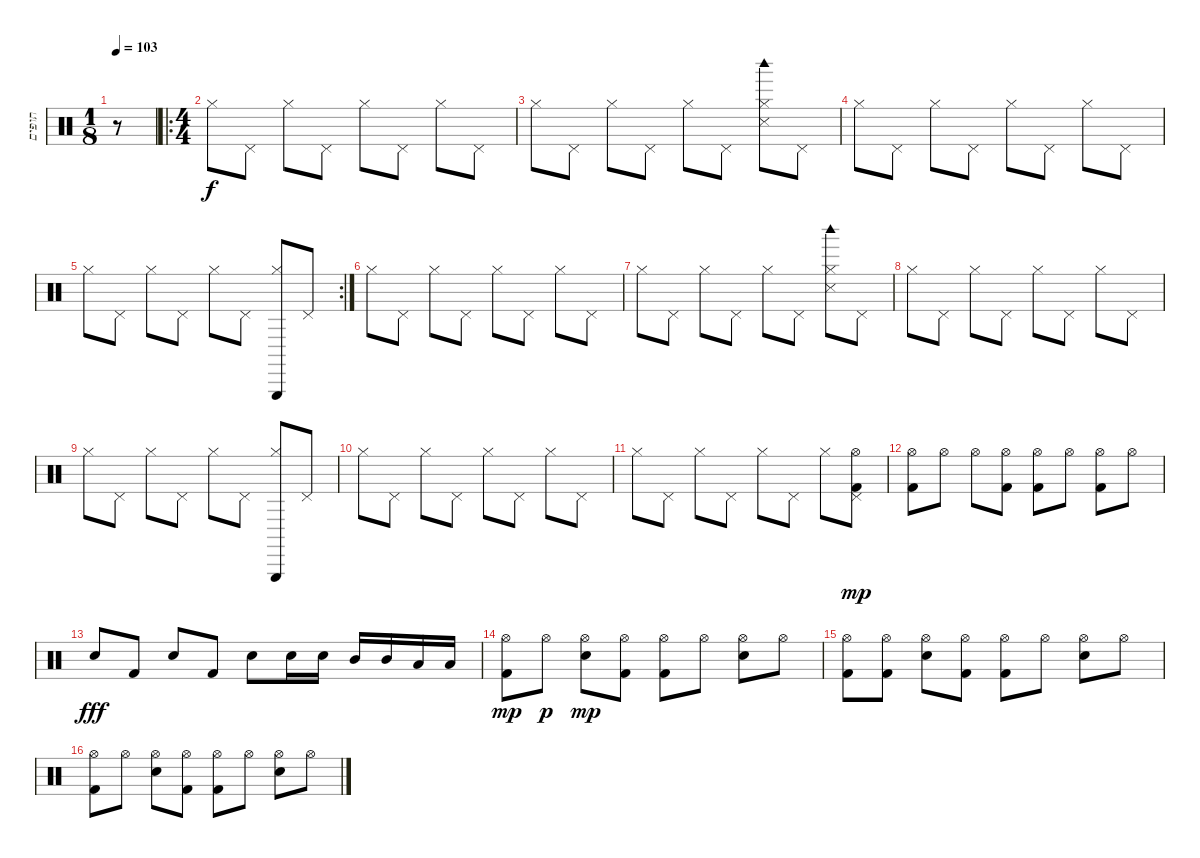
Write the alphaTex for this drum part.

\track ("תופים" "תופים") {instrument percussion}
\staff {score}
\articulation defaults
\ts (1 8)
\tempo 103
\clef neutral
\ks c
r.8{dy f} |
\ro
\ts (4 4)
"Hi-Hat (closed)".8 "Pedal Hi-Hat (hit)".8 "Hi-Hat (closed)".8 "Pedal Hi-Hat (hit)".8 "Hi-Hat (closed)".8 "Pedal Hi-Hat (hit)".8 "Hi-Hat (closed)".8 "Pedal Hi-Hat (hit)".8 |
"Hi-Hat (closed)".8 "Pedal Hi-Hat (hit)".8 "Hi-Hat (closed)".8 "Pedal Hi-Hat (hit)".8 "Hi-Hat (closed)".8 "Pedal Hi-Hat (hit)".8 ("Hi-Hat (closed)" "Woodblock high (hit)" "Snare (side stick) 3").8 "Pedal Hi-Hat (hit)".8 |
"Hi-Hat (closed)".8 "Pedal Hi-Hat (hit)".8 "Hi-Hat (closed)".8 "Pedal Hi-Hat (hit)".8 "Hi-Hat (closed)".8 "Pedal Hi-Hat (hit)".8 "Hi-Hat (closed)".8 "Pedal Hi-Hat (hit)".8 |
\rc 2 "Hi-Hat (closed)".8 "Pedal Hi-Hat (hit)".8 "Hi-Hat (closed)".8 "Pedal Hi-Hat (hit)".8 "Hi-Hat (closed)".8 "Pedal Hi-Hat (hit)".8
("Hi-Hat (closed)" "Triangle (hit)").8 "Pedal Hi-Hat (hit)".8 |
"Hi-Hat (closed)".8 "Pedal Hi-Hat (hit)".8 "Hi-Hat (closed)".8 "Pedal Hi-Hat (hit)".8 "Hi-Hat (closed)".8 "Pedal Hi-Hat (hit)".8 "Hi-Hat (closed)".8 "Pedal Hi-Hat (hit)".8 |
"Hi-Hat (closed)".8 "Pedal Hi-Hat (hit)".8 "Hi-Hat (closed)".8 "Pedal Hi-Hat (hit)".8 "Hi-Hat (closed)".8 "Pedal Hi-Hat (hit)".8 ("Hi-Hat (closed)" "Woodblock high (hit)" "Snare (side stick) 3").8 "Pedal Hi-Hat (hit)".8 |
"Hi-Hat (closed)".8 "Pedal Hi-Hat (hit)".8 "Hi-Hat (closed)".8 "Pedal Hi-Hat (hit)".8 "Hi-Hat (closed)".8 "Pedal Hi-Hat (hit)".8 "Hi-Hat (closed)".8 "Pedal Hi-Hat (hit)".8 |
"Hi-Hat (closed)".8 "Pedal Hi-Hat (hit)".8 "Hi-Hat (closed)".8 "Pedal Hi-Hat (hit)".8 "Hi-Hat (closed)".8 "Pedal Hi-Hat (hit)".8 ("Hi-Hat (closed)" "Triangle (hit)").8 "Pedal Hi-Hat (hit)".8 |
"Hi-Hat (closed)".8 "Pedal Hi-Hat (hit)".8 "Hi-Hat (closed)".8 "Pedal Hi-Hat (hit)".8 "Hi-Hat (closed)".8 "Pedal Hi-Hat (hit)".8 "Hi-Hat (closed)".8 "Pedal Hi-Hat (hit)".8 |
"Hi-Hat (closed)".8 "Pedal Hi-Hat (hit)".8 "Hi-Hat (closed)".8 "Pedal Hi-Hat (hit)".8 "Hi-Hat (closed)".8 "Pedal Hi-Hat (hit)".8 "Hi-Hat (closed)".8 ("Pedal Hi-Hat (hit)" "Kick (hit) 2" "Hi-Hat (open)").8{dy mp} |
("Kick (hit) 2" "Hi-Hat (open)").8 "Hi-Hat (open)".8 "Hi-Hat (open)".8 ("Kick (hit) 2" "Hi-Hat (open)").8 ("Kick (hit) 2" "Hi-Hat (open)").8 "Hi-Hat (open)".8 ("Kick (hit) 2" "Hi-Hat (open)").8 "Hi-Hat (open)".8 |
"Electric Snare (hit)".8{dy fff} "Kick (hit) 2".8 "Electric Snare (hit)".8 "Kick (hit) 2".8 "Electric Snare (hit)".8 "Electric Snare (hit)".16 "Electric Snare (hit)".16 "Mid Tom (hit)".16 "Mid Tom (hit)".16 "Low Tom (hit)".16 "Low Tom (hit)".16 |
("Kick (hit) 2" "Hi-Hat (open)").8{dy mp} "Hi-Hat (open)".8{dy p} ("Electric Snare (hit)" "Hi-Hat (open)").8{dy mp} ("Kick (hit) 2" "Hi-Hat (open)").8 ("Kick (hit) 2" "Hi-Hat (open)").8 "Hi-Hat (open)".8 ("Electric Snare (hit)" "Hi-Hat (open)").8 "Hi-Hat (open)".8 |
("Kick (hit) 2" "Hi-Hat (open)").8 ("Kick (hit) 2" "Hi-Hat (open)").8 ("Electric Snare (hit)" "Hi-Hat (open)").8 ("Kick (hit) 2" "Hi-Hat (open)").8 ("Kick (hit) 2" "Hi-Hat (open)").8 "Hi-Hat (open)".8 ("Electric Snare (hit)" "Hi-Hat (open)").8 "Hi-Hat (open)".8 |
("Kick (hit) 2" "Hi-Hat (open)").8 "Hi-Hat (open)".8 ("Electric Snare (hit)" "Hi-Hat (open)").8 ("Kick (hit) 2" "Hi-Hat (open)").8 ("Kick (hit) 2" "Hi-Hat (open)").8 "Hi-Hat (open)".8 ("Electric Snare (hit)" "Hi-Hat (open)").8 "Hi-Hat (open)".8
